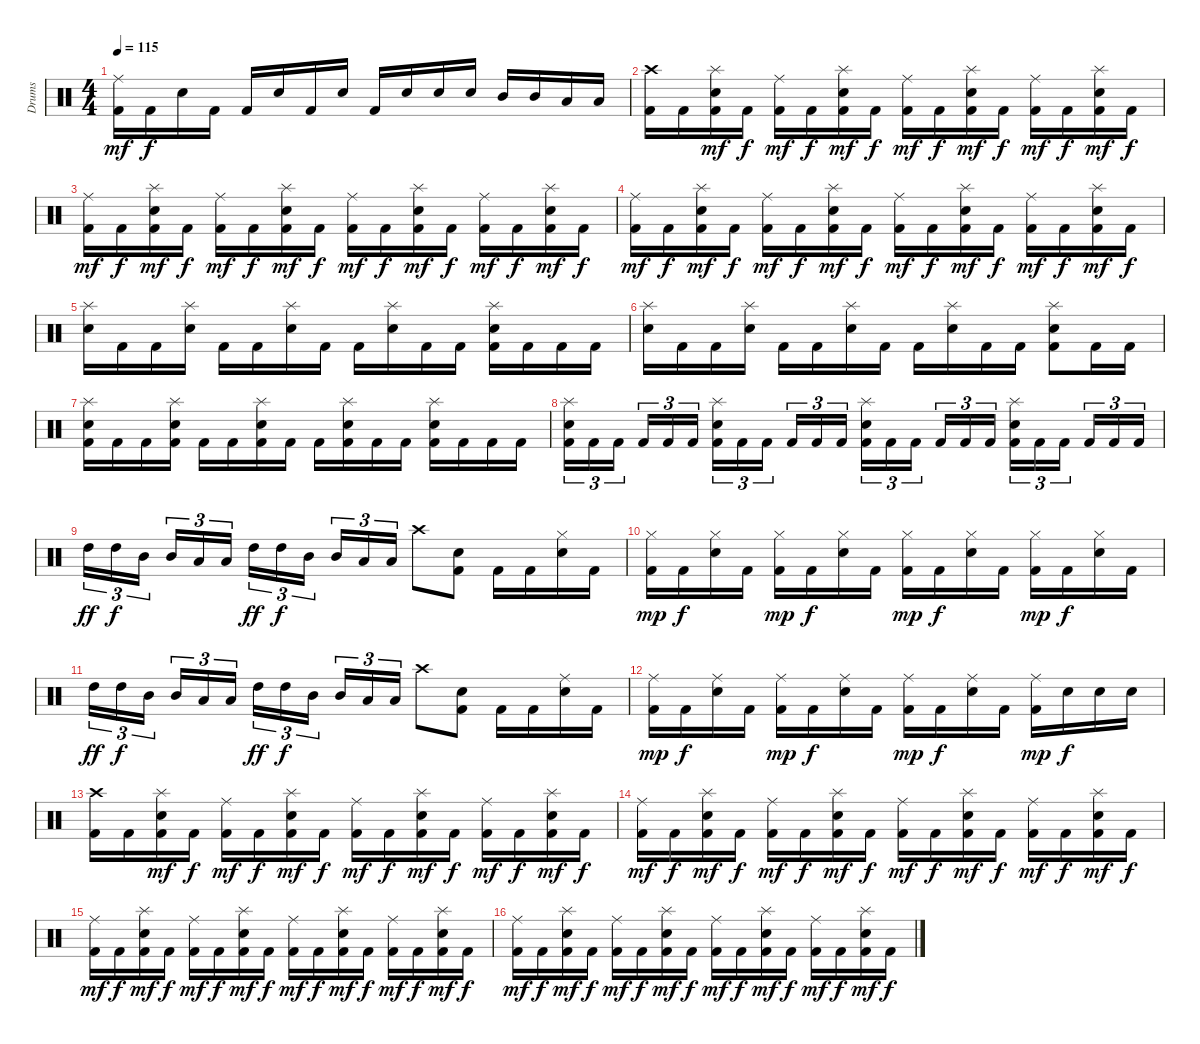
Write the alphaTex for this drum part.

\track ("Drums" "Drums") {instrument percussion}
\staff {score}
\articulation defaults
\ts (4 4)
\tempo 115
\clef neutral
\ks c
("Ride (middle)" "Kick (hit) 2").16{dy mf} "Kick (hit) 2".16{dy f} "Snare (hit) 2".16 "Kick (hit) 2".16 "Kick (hit) 2".16 "Snare (hit) 2".16 "Kick (hit) 2".16 "Snare (hit) 2".16 "Kick (hit) 2".16 "Snare (hit) 2".16 "Snare (hit) 2".16 "Snare (hit) 2".16 "Mid Tom (hit)".16 "Mid Tom (hit)".16 "Low Tom (hit)".16 "Low Tom (hit)".16 |
("Crash high (hit)" "Kick (hit) 2").16 "Kick (hit) 2".16 ("Splash (hit)" "Snare (hit) 2" "Kick (hit) 2").16{dy mf} "Kick (hit) 2".16{dy f} ("Ride (middle)" "Kick (hit) 2").16{dy mf} "Kick (hit) 2".16{dy f} ("Splash (hit)" "Snare (hit) 2" "Kick (hit) 2").16{dy mf} "Kick (hit) 2".16{dy f} ("Ride (middle)" "Kick (hit) 2").16{dy mf} "Kick (hit) 2".16{dy f} ("Splash (hit)" "Snare (hit) 2" "Kick (hit) 2").16{dy mf} "Kick (hit) 2".16{dy f} ("Ride (middle)" "Kick (hit) 2").16{dy mf} "Kick (hit) 2".16{dy f} ("Splash (hit)" "Snare (hit) 2" "Kick (hit) 2").16{dy mf} "Kick (hit) 2".16{dy f} |
("Ride (middle)" "Kick (hit) 2").16{dy mf} "Kick (hit) 2".16{dy f} ("Splash (hit)" "Snare (hit) 2" "Kick (hit) 2").16{dy mf} "Kick (hit) 2".16{dy f} ("Ride (middle)" "Kick (hit) 2").16{dy mf} "Kick (hit) 2".16{dy f} ("Splash (hit)" "Snare (hit) 2" "Kick (hit) 2").16{dy mf} "Kick (hit) 2".16{dy f} ("Ride (middle)" "Kick (hit) 2").16{dy mf} "Kick (hit) 2".16{dy f} ("Splash (hit)" "Snare (hit) 2" "Kick (hit) 2").16{dy mf} "Kick (hit) 2".16{dy f} ("Ride (middle)" "Kick (hit) 2").16{dy mf} "Kick (hit) 2".16{dy f} ("Splash (hit)" "Snare (hit) 2" "Kick (hit) 2").16{dy mf} "Kick (hit) 2".16{dy f} |
("Ride (middle)" "Kick (hit) 2").16{dy mf} "Kick (hit) 2".16{dy f} ("Splash (hit)" "Snare (hit) 2" "Kick (hit) 2").16{dy mf} "Kick (hit) 2".16{dy f} ("Ride (middle)" "Kick (hit) 2").16{dy mf} "Kick (hit) 2".16{dy f} ("Splash (hit)" "Snare (hit) 2" "Kick (hit) 2").16{dy mf} "Kick (hit) 2".16{dy f} ("Ride (middle)" "Kick (hit) 2").16{dy mf} "Kick (hit) 2".16{dy f} ("Splash (hit)" "Snare (hit) 2" "Kick (hit) 2").16{dy mf} "Kick (hit) 2".16{dy f} ("Ride (middle)" "Kick (hit) 2").16{dy mf} "Kick (hit) 2".16{dy f} ("Splash (hit)" "Snare (hit) 2" "Kick (hit) 2").16{dy mf} "Kick (hit) 2".16{dy f} |
("Splash (hit)" "Snare (hit) 2").16 "Kick (hit) 2".16 "Kick (hit) 2".16 ("Splash (hit)" "Snare (hit) 2").16 "Kick (hit) 2".16 "Kick (hit) 2".16 ("Splash (hit)" "Snare (hit) 2").16 "Kick (hit) 2".16 "Kick (hit) 2".16 ("Splash (hit)" "Snare (hit) 2").16 "Kick (hit) 2".16 "Kick (hit) 2".16 ("Splash (hit)" "Snare (hit) 2" "Kick (hit) 2").16 "Kick (hit) 2".16 "Kick (hit) 2".16 "Kick (hit) 2".16 |
("Splash (hit)" "Snare (hit) 2").16 "Kick (hit) 2".16 "Kick (hit) 2".16 ("Splash (hit)" "Snare (hit) 2").16 "Kick (hit) 2".16 "Kick (hit) 2".16 ("Splash (hit)" "Snare (hit) 2").16 "Kick (hit) 2".16 "Kick (hit) 2".16 ("Splash (hit)" "Snare (hit) 2").16 "Kick (hit) 2".16 "Kick (hit) 2".16 ("Splash (hit)" "Snare (hit) 2" "Kick (hit) 2").8 "Kick (hit) 2".16 "Kick (hit) 2".16 |
("Splash (hit)" "Snare (hit) 2" "Kick (hit) 2").16 "Kick (hit) 2".16 "Kick (hit) 2".16 ("Splash (hit)" "Snare (hit) 2" "Kick (hit) 2").16 "Kick (hit) 2".16 "Kick (hit) 2".16 ("Splash (hit)" "Snare (hit) 2" "Kick (hit) 2").16 "Kick (hit) 2".16 "Kick (hit) 2".16 ("Splash (hit)" "Snare (hit) 2" "Kick (hit) 2").16 "Kick (hit) 2".16 "Kick (hit) 2".16 ("Splash (hit)" "Snare (hit) 2" "Kick (hit) 2").16 "Kick (hit) 2".16 "Kick (hit) 2".16 "Kick (hit) 2".16 |
("Splash (hit)" "Snare (hit) 2" "Kick (hit) 2").16{tu (3 2)} "Kick (hit) 2".16{tu (3 2)} "Kick (hit) 2".16{tu (3 2) beam splitsecondary} "Kick (hit) 2".16{tu (3 2)} "Kick (hit) 2".16{tu (3 2)} "Kick (hit) 2".16{tu (3 2)} ("Splash (hit)" "Snare (hit) 2" "Kick (hit) 2").16{tu (3 2)} "Kick (hit) 2".16{tu (3 2)} "Kick (hit) 2".16{tu (3 2) beam splitsecondary} "Kick (hit) 2".16{tu (3 2)} "Kick (hit) 2".16{tu (3 2)} "Kick (hit) 2".16{tu (3 2)} ("Splash (hit)" "Snare (hit) 2" "Kick (hit) 2").16{tu (3 2)} "Kick (hit) 2".16{tu (3 2)} "Kick (hit) 2".16{tu (3 2) beam splitsecondary} "Kick (hit) 2".16{tu (3 2)} "Kick (hit) 2".16{tu (3 2)} "Kick (hit) 2".16{tu (3 2)} ("Splash (hit)" "Snare (hit) 2" "Kick (hit) 2").16{tu (3 2)} "Kick (hit) 2".16{tu (3 2)} "Kick (hit) 2".16{tu (3 2) beam splitsecondary} "Kick (hit) 2".16{tu (3 2)} "Kick (hit) 2".16{tu (3 2)} "Kick (hit) 2".16{tu (3 2)} |
"High Tom (hit)".16{tu (3 2) dy ff} "High Tom (hit)".16{tu (3 2) dy f} "Mid Tom (hit)".16{tu (3 2) beam splitsecondary} "Mid Tom (hit)".16{tu (3 2)} "Low Tom (hit)".16{tu (3 2)} "Low Tom (hit)".16{tu (3 2)} "High Tom (hit)".16{tu (3 2) dy ff} "High Tom (hit)".16{tu (3 2) dy f} "Mid Tom (hit)".16{tu (3 2) beam splitsecondary} "Mid Tom (hit)".16{tu (3 2)} "Low Tom (hit)".16{tu (3 2)} "Low Tom (hit)".16{tu (3 2)} "Crash high (hit)".8 ("Snare (hit) 2" "Kick (hit) 2").8 "Kick (hit) 2".16 "Kick (hit) 2".16 ("Hi-Hat (closed)" "Snare (hit) 2").16 "Kick (hit) 2".16 |
("Hi-Hat (closed)" "Kick (hit) 2").16{dy mp} "Kick (hit) 2".16{dy f} ("Hi-Hat (closed)" "Snare (hit) 2").16 "Kick (hit) 2".16 ("Hi-Hat (closed)" "Kick (hit) 2").16{dy mp} "Kick (hit) 2".16{dy f} ("Hi-Hat (closed)" "Snare (hit) 2").16 "Kick (hit) 2".16 ("Hi-Hat (closed)" "Kick (hit) 2").16{dy mp} "Kick (hit) 2".16{dy f} ("Hi-Hat (closed)" "Snare (hit) 2").16 "Kick (hit) 2".16 ("Hi-Hat (closed)" "Kick (hit) 2").16{dy mp} "Kick (hit) 2".16{dy f} ("Hi-Hat (closed)" "Snare (hit) 2").16 "Kick (hit) 2".16 |
"High Tom (hit)".16{tu (3 2) dy ff} "High Tom (hit)".16{tu (3 2) dy f} "Mid Tom (hit)".16{tu (3 2) beam splitsecondary} "Mid Tom (hit)".16{tu (3 2)} "Low Tom (hit)".16{tu (3 2)} "Low Tom (hit)".16{tu (3 2)} "High Tom (hit)".16{tu (3 2) dy ff} "High Tom (hit)".16{tu (3 2) dy f} "Mid Tom (hit)".16{tu (3 2) beam splitsecondary} "Mid Tom (hit)".16{tu (3 2)} "Low Tom (hit)".16{tu (3 2)} "Low Tom (hit)".16{tu (3 2)} "Crash high (hit)".8 ("Snare (hit) 2" "Kick (hit) 2").8 "Kick (hit) 2".16 "Kick (hit) 2".16 ("Ride (middle)" "Snare (hit) 2").16 "Kick (hit) 2".16 |
("Ride (middle)" "Kick (hit) 2").16{dy mp} "Kick (hit) 2".16{dy f} ("Ride (middle)" "Snare (hit) 2").16 "Kick (hit) 2".16 ("Ride (middle)" "Kick (hit) 2").16{dy mp} "Kick (hit) 2".16{dy f} ("Ride (middle)" "Snare (hit) 2").16 "Kick (hit) 2".16 ("Ride (middle)" "Kick (hit) 2").16{dy mp} "Kick (hit) 2".16{dy f} ("Ride (middle)" "Snare (hit) 2").16 "Kick (hit) 2".16 ("Ride (middle)" "Kick (hit) 2").16{dy mp} "Snare (hit) 2".16{dy f} "Snare (hit) 2".16 "Snare (hit) 2".16 |
("Crash high (hit)" "Kick (hit) 2").16 "Kick (hit) 2".16 ("Splash (hit)" "Snare (hit) 2" "Kick (hit) 2").16{dy mf} "Kick (hit) 2".16{dy f} ("Ride (middle)" "Kick (hit) 2").16{dy mf} "Kick (hit) 2".16{dy f} ("Splash (hit)" "Snare (hit) 2" "Kick (hit) 2").16{dy mf} "Kick (hit) 2".16{dy f} ("Ride (middle)" "Kick (hit) 2").16{dy mf} "Kick (hit) 2".16{dy f} ("Splash (hit)" "Snare (hit) 2" "Kick (hit) 2").16{dy mf} "Kick (hit) 2".16{dy f} ("Ride (middle)" "Kick (hit) 2").16{dy mf} "Kick (hit) 2".16{dy f} ("Splash (hit)" "Snare (hit) 2" "Kick (hit) 2").16{dy mf} "Kick (hit) 2".16{dy f} |
("Ride (middle)" "Kick (hit) 2").16{dy mf} "Kick (hit) 2".16{dy f} ("Splash (hit)" "Snare (hit) 2" "Kick (hit) 2").16{dy mf} "Kick (hit) 2".16{dy f} ("Ride (middle)" "Kick (hit) 2").16{dy mf} "Kick (hit) 2".16{dy f} ("Splash (hit)" "Snare (hit) 2" "Kick (hit) 2").16{dy mf} "Kick (hit) 2".16{dy f} ("Ride (middle)" "Kick (hit) 2").16{dy mf} "Kick (hit) 2".16{dy f} ("Splash (hit)" "Snare (hit) 2" "Kick (hit) 2").16{dy mf} "Kick (hit) 2".16{dy f} ("Ride (middle)" "Kick (hit) 2").16{dy mf} "Kick (hit) 2".16{dy f} ("Splash (hit)" "Snare (hit) 2" "Kick (hit) 2").16{dy mf} "Kick (hit) 2".16{dy f} |
("Ride (middle)" "Kick (hit) 2").16{dy mf} "Kick (hit) 2".16{dy f} ("Splash (hit)" "Snare (hit) 2" "Kick (hit) 2").16{dy mf} "Kick (hit) 2".16{dy f} ("Ride (middle)" "Kick (hit) 2").16{dy mf} "Kick (hit) 2".16{dy f} ("Splash (hit)" "Snare (hit) 2" "Kick (hit) 2").16{dy mf} "Kick (hit) 2".16{dy f} ("Ride (middle)" "Kick (hit) 2").16{dy mf} "Kick (hit) 2".16{dy f} ("Splash (hit)" "Snare (hit) 2" "Kick (hit) 2").16{dy mf} "Kick (hit) 2".16{dy f} ("Ride (middle)" "Kick (hit) 2").16{dy mf} "Kick (hit) 2".16{dy f} ("Splash (hit)" "Snare (hit) 2" "Kick (hit) 2").16{dy mf} "Kick (hit) 2".16{dy f} |
("Ride (middle)" "Kick (hit) 2").16{dy mf} "Kick (hit) 2".16{dy f} ("Splash (hit)" "Snare (hit) 2" "Kick (hit) 2").16{dy mf} "Kick (hit) 2".16{dy f} ("Ride (middle)" "Kick (hit) 2").16{dy mf} "Kick (hit) 2".16{dy f} ("Splash (hit)" "Snare (hit) 2" "Kick (hit) 2").16{dy mf} "Kick (hit) 2".16{dy f} ("Ride (middle)" "Kick (hit) 2").16{dy mf} "Kick (hit) 2".16{dy f} ("Splash (hit)" "Snare (hit) 2" "Kick (hit) 2").16{dy mf} "Kick (hit) 2".16{dy f} ("Ride (middle)" "Kick (hit) 2").16{dy mf} "Kick (hit) 2".16{dy f} ("Splash (hit)" "Snare (hit) 2" "Kick (hit) 2").16{dy mf} "Kick (hit) 2".16{dy f}
